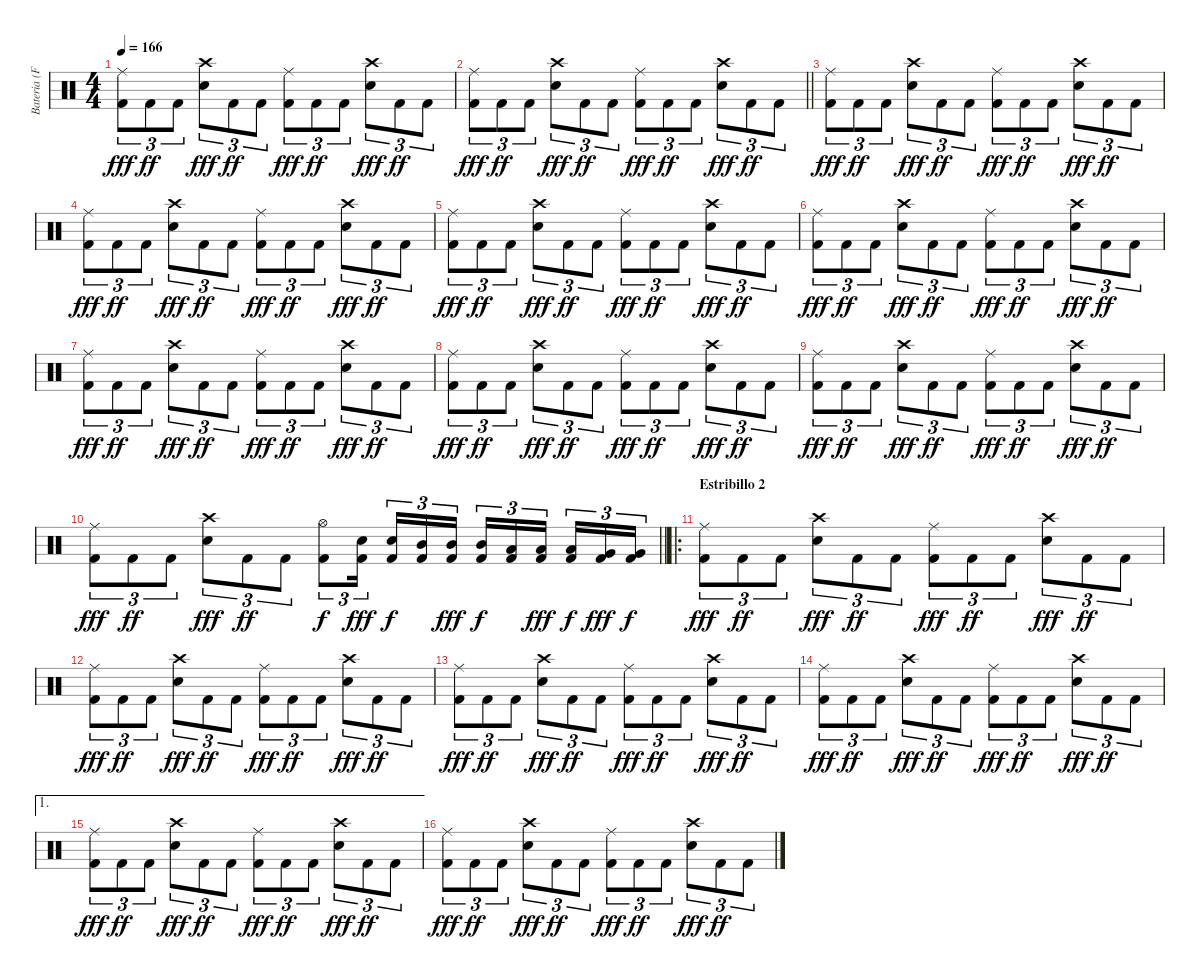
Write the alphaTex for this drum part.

\track ("Bateria (Fernando Scarcella)" "Bateria (F") {instrument percussion}
\staff {score}
\articulation defaults
\ts (4 4)
\tempo 166
\clef neutral
\ks c
("Kick (hit) 2" "Ride (middle)").8{tu (3 2) dy fff} "Kick (hit) 2".8{tu (3 2) dy ff} "Kick (hit) 2".8{tu (3 2)} ("Electric Snare (hit)" "Crash high (hit)").8{tu (3 2) dy fff} "Kick (hit) 2".8{tu (3 2) dy ff} "Kick (hit) 2".8{tu (3 2)} ("Kick (hit) 2" "Ride (middle)").8{tu (3 2) dy fff} "Kick (hit) 2".8{tu (3 2) dy ff} "Kick (hit) 2".8{tu (3 2)} ("Electric Snare (hit)" "Crash high (hit)").8{tu (3 2) dy fff} "Kick (hit) 2".8{tu (3 2) dy ff} "Kick (hit) 2".8{tu (3 2)} |
\barLineRight lightlight
("Kick (hit) 2" "Ride (middle)").8{tu (3 2) dy fff} "Kick (hit) 2".8{tu (3 2) dy ff} "Kick (hit) 2".8{tu (3 2)} ("Electric Snare (hit)" "Crash high (hit)").8{tu (3 2) dy fff} "Kick (hit) 2".8{tu (3 2) dy ff} "Kick (hit) 2".8{tu (3 2)} ("Kick (hit) 2" "Ride (middle)").8{tu (3 2) dy fff} "Kick (hit) 2".8{tu (3 2) dy ff} "Kick (hit) 2".8{tu (3 2)} ("Electric Snare (hit)" "Crash high (hit)").8{tu (3 2) dy fff} "Kick (hit) 2".8{tu (3 2) dy ff} "Kick (hit) 2".8{tu (3 2)} |
("Kick (hit) 2" "Ride (middle)").8{tu (3 2) dy fff} "Kick (hit) 2".8{tu (3 2) dy ff} "Kick (hit) 2".8{tu (3 2)} ("Electric Snare (hit)" "Crash high (hit)").8{tu (3 2) dy fff} "Kick (hit) 2".8{tu (3 2) dy ff} "Kick (hit) 2".8{tu (3 2)} ("Kick (hit) 2" "Ride (middle)").8{tu (3 2) dy fff} "Kick (hit) 2".8{tu (3 2) dy ff} "Kick (hit) 2".8{tu (3 2)} ("Electric Snare (hit)" "Crash high (hit)").8{tu (3 2) dy fff} "Kick (hit) 2".8{tu (3 2) dy ff} "Kick (hit) 2".8{tu (3 2)} |
("Kick (hit) 2" "Ride (middle)").8{tu (3 2) dy fff} "Kick (hit) 2".8{tu (3 2) dy ff} "Kick (hit) 2".8{tu (3 2)} ("Electric Snare (hit)" "Crash high (hit)").8{tu (3 2) dy fff} "Kick (hit) 2".8{tu (3 2) dy ff} "Kick (hit) 2".8{tu (3 2)} ("Kick (hit) 2" "Ride (middle)").8{tu (3 2) dy fff} "Kick (hit) 2".8{tu (3 2) dy ff} "Kick (hit) 2".8{tu (3 2)} ("Electric Snare (hit)" "Crash high (hit)").8{tu (3 2) dy fff} "Kick (hit) 2".8{tu (3 2) dy ff} "Kick (hit) 2".8{tu (3 2)} |
("Kick (hit) 2" "Ride (middle)").8{tu (3 2) dy fff} "Kick (hit) 2".8{tu (3 2) dy ff} "Kick (hit) 2".8{tu (3 2)} ("Electric Snare (hit)" "Crash high (hit)").8{tu (3 2) dy fff} "Kick (hit) 2".8{tu (3 2) dy ff} "Kick (hit) 2".8{tu (3 2)} ("Kick (hit) 2" "Ride (middle)").8{tu (3 2) dy fff} "Kick (hit) 2".8{tu (3 2) dy ff} "Kick (hit) 2".8{tu (3 2)} ("Electric Snare (hit)" "Crash high (hit)").8{tu (3 2) dy fff} "Kick (hit) 2".8{tu (3 2) dy ff} "Kick (hit) 2".8{tu (3 2)} |
("Kick (hit) 2" "Ride (middle)").8{tu (3 2) dy fff} "Kick (hit) 2".8{tu (3 2) dy ff} "Kick (hit) 2".8{tu (3 2)} ("Electric Snare (hit)" "Crash high (hit)").8{tu (3 2) dy fff} "Kick (hit) 2".8{tu (3 2) dy ff} "Kick (hit) 2".8{tu (3 2)} ("Kick (hit) 2" "Ride (middle)").8{tu (3 2) dy fff} "Kick (hit) 2".8{tu (3 2) dy ff} "Kick (hit) 2".8{tu (3 2)} ("Electric Snare (hit)" "Crash high (hit)").8{tu (3 2) dy fff} "Kick (hit) 2".8{tu (3 2) dy ff} "Kick (hit) 2".8{tu (3 2)} |
("Kick (hit) 2" "Ride (middle)").8{tu (3 2) dy fff} "Kick (hit) 2".8{tu (3 2) dy ff} "Kick (hit) 2".8{tu (3 2)} ("Electric Snare (hit)" "Crash high (hit)").8{tu (3 2) dy fff} "Kick (hit) 2".8{tu (3 2) dy ff} "Kick (hit) 2".8{tu (3 2)} ("Kick (hit) 2" "Ride (middle)").8{tu (3 2) dy fff} "Kick (hit) 2".8{tu (3 2) dy ff} "Kick (hit) 2".8{tu (3 2)} ("Electric Snare (hit)" "Crash high (hit)").8{tu (3 2) dy fff} "Kick (hit) 2".8{tu (3 2) dy ff} "Kick (hit) 2".8{tu (3 2)} |
("Kick (hit) 2" "Ride (middle)").8{tu (3 2) dy fff} "Kick (hit) 2".8{tu (3 2) dy ff} "Kick (hit) 2".8{tu (3 2)} ("Electric Snare (hit)" "Crash high (hit)").8{tu (3 2) dy fff} "Kick (hit) 2".8{tu (3 2) dy ff} "Kick (hit) 2".8{tu (3 2)} ("Kick (hit) 2" "Ride (middle)").8{tu (3 2) dy fff} "Kick (hit) 2".8{tu (3 2) dy ff} "Kick (hit) 2".8{tu (3 2)} ("Electric Snare (hit)" "Crash high (hit)").8{tu (3 2) dy fff} "Kick (hit) 2".8{tu (3 2) dy ff} "Kick (hit) 2".8{tu (3 2)} |
("Kick (hit) 2" "Ride (middle)").8{tu (3 2) dy fff} "Kick (hit) 2".8{tu (3 2) dy ff} "Kick (hit) 2".8{tu (3 2)} ("Electric Snare (hit)" "Crash high (hit)").8{tu (3 2) dy fff} "Kick (hit) 2".8{tu (3 2) dy ff} "Kick (hit) 2".8{tu (3 2)} ("Kick (hit) 2" "Ride (middle)").8{tu (3 2) dy fff} "Kick (hit) 2".8{tu (3 2) dy ff} "Kick (hit) 2".8{tu (3 2)} ("Electric Snare (hit)" "Crash high (hit)").8{tu (3 2) dy fff} "Kick (hit) 2".8{tu (3 2) dy ff} "Kick (hit) 2".8{tu (3 2)} |
\barLineRight lightlight
("Kick (hit) 2" "Ride (middle)").8{tu (3 2) dy fff} "Kick (hit) 2".8{tu (3 2) dy ff} "Kick (hit) 2".8{tu (3 2)} ("Electric Snare (hit)" "Crash high (hit)").8{tu (3 2) dy fff} "Kick (hit) 2".8{tu (3 2) dy ff} "Kick (hit) 2".8{tu (3 2)} ("Hi-Hat (open)" "Kick (hit) 2").8{tu (3 2) dy f} ("Snare (hit) 2" "Kick (hit) 2").16{tu (3 2) dy fff beam splitsecondary} ("Snare (hit) 2" "Kick (hit) 2").16{tu (3 2) dy f} ("Mid Tom (hit)" "Kick (hit) 2").16{tu (3 2)} ("Mid Tom (hit)" "Kick (hit) 2").16{tu (3 2) dy fff} ("Mid Tom (hit)" "Kick (hit) 2").16{tu (3 2) dy f} ("Low Tom (hit)" "Kick (hit) 2").16{tu (3 2)} ("Low Tom (hit)" "Kick (hit) 2").16{tu (3 2) dy fff beam splitsecondary} ("Low Tom (hit)" "Kick (hit) 2").16{tu (3 2) dy f} ("Very Low Tom (hit)" "Kick (hit) 2").16{tu (3 2) dy fff} ("Very Low Tom (hit)" "Kick (hit) 2").16{tu (3 2) dy f} |
\ro
\section ("" "Estribillo 2")
("Kick (hit) 2" "Ride (middle)").8{tu (3 2) dy fff} "Kick (hit) 2".8{tu (3 2) dy ff} "Kick (hit) 2".8{tu (3 2)} ("Electric Snare (hit)" "Crash high (hit)").8{tu (3 2) dy fff} "Kick (hit) 2".8{tu (3 2) dy ff} "Kick (hit) 2".8{tu (3 2)} ("Kick (hit) 2" "Ride (middle)").8{tu (3 2) dy fff} "Kick (hit) 2".8{tu (3 2) dy ff} "Kick (hit) 2".8{tu (3 2)} ("Electric Snare (hit)" "Crash high (hit)").8{tu (3 2) dy fff} "Kick (hit) 2".8{tu (3 2) dy ff} "Kick (hit) 2".8{tu (3 2)} |
("Kick (hit) 2" "Ride (middle)").8{tu (3 2) dy fff} "Kick (hit) 2".8{tu (3 2) dy ff} "Kick (hit) 2".8{tu (3 2)} ("Electric Snare (hit)" "Crash high (hit)").8{tu (3 2) dy fff} "Kick (hit) 2".8{tu (3 2) dy ff} "Kick (hit) 2".8{tu (3 2)} ("Kick (hit) 2" "Ride (middle)").8{tu (3 2) dy fff} "Kick (hit) 2".8{tu (3 2) dy ff} "Kick (hit) 2".8{tu (3 2)} ("Electric Snare (hit)" "Crash high (hit)").8{tu (3 2) dy fff} "Kick (hit) 2".8{tu (3 2) dy ff} "Kick (hit) 2".8{tu (3 2)} |
("Kick (hit) 2" "Ride (middle)").8{tu (3 2) dy fff} "Kick (hit) 2".8{tu (3 2) dy ff} "Kick (hit) 2".8{tu (3 2)} ("Electric Snare (hit)" "Crash high (hit)").8{tu (3 2) dy fff} "Kick (hit) 2".8{tu (3 2) dy ff} "Kick (hit) 2".8{tu (3 2)} ("Kick (hit) 2" "Ride (middle)").8{tu (3 2) dy fff} "Kick (hit) 2".8{tu (3 2) dy ff} "Kick (hit) 2".8{tu (3 2)} ("Electric Snare (hit)" "Crash high (hit)").8{tu (3 2) dy fff} "Kick (hit) 2".8{tu (3 2) dy ff} "Kick (hit) 2".8{tu (3 2)} |
("Kick (hit) 2" "Ride (middle)").8{tu (3 2) dy fff} "Kick (hit) 2".8{tu (3 2) dy ff} "Kick (hit) 2".8{tu (3 2)} ("Electric Snare (hit)" "Crash high (hit)").8{tu (3 2) dy fff} "Kick (hit) 2".8{tu (3 2) dy ff} "Kick (hit) 2".8{tu (3 2)} ("Kick (hit) 2" "Ride (middle)").8{tu (3 2) dy fff} "Kick (hit) 2".8{tu (3 2) dy ff} "Kick (hit) 2".8{tu (3 2)} ("Electric Snare (hit)" "Crash high (hit)").8{tu (3 2) dy fff} "Kick (hit) 2".8{tu (3 2) dy ff} "Kick (hit) 2".8{tu (3 2)} |
\ae 1
("Kick (hit) 2" "Ride (middle)").8{tu (3 2) dy fff} "Kick (hit) 2".8{tu (3 2) dy ff} "Kick (hit) 2".8{tu (3 2)} ("Electric Snare (hit)" "Crash high (hit)").8{tu (3 2) dy fff} "Kick (hit) 2".8{tu (3 2) dy ff} "Kick (hit) 2".8{tu (3 2)} ("Kick (hit) 2" "Ride (middle)").8{tu (3 2) dy fff} "Kick (hit) 2".8{tu (3 2) dy ff} "Kick (hit) 2".8{tu (3 2)} ("Electric Snare (hit)" "Crash high (hit)").8{tu (3 2) dy fff} "Kick (hit) 2".8{tu (3 2) dy ff} "Kick (hit) 2".8{tu (3 2)} |
("Kick (hit) 2" "Ride (middle)").8{tu (3 2) dy fff} "Kick (hit) 2".8{tu (3 2) dy ff} "Kick (hit) 2".8{tu (3 2)} ("Electric Snare (hit)" "Crash high (hit)").8{tu (3 2) dy fff} "Kick (hit) 2".8{tu (3 2) dy ff} "Kick (hit) 2".8{tu (3 2)} ("Kick (hit) 2" "Ride (middle)").8{tu (3 2) dy fff} "Kick (hit) 2".8{tu (3 2) dy ff} "Kick (hit) 2".8{tu (3 2)} ("Electric Snare (hit)" "Crash high (hit)").8{tu (3 2) dy fff} "Kick (hit) 2".8{tu (3 2) dy ff} "Kick (hit) 2".8{tu (3 2)}
